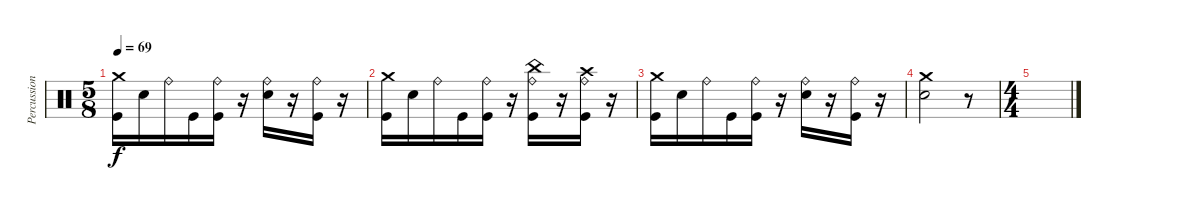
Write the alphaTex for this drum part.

\track ("Percussion" "Percussion") {instrument percussion}
\staff {score}
\articulation defaults
\ts (5 8)
\tempo 69
\clef neutral
\ks c
("Crash medium (hit)" "Kick (hit)").16{dy f} "Electric Snare (hit)".16 "Ride (bell)".16 "Kick (hit)".16 ("Ride (bell)" "Kick (hit)").16 r.16 ("Ride (bell)" "Electric Snare (hit)").16 r.16 ("Ride (bell)" "Kick (hit)").16 r.16 |
("Crash medium (hit)" "Kick (hit)").16 "Electric Snare (hit)".16 "Ride (bell)".16 "Kick (hit)".16 ("Ride (bell)" "Kick (hit)").16 r.16 ("China (hit)" "Ride (bell)" "Kick (hit)").16 r.16 ("Crash high (hit)" "Ride (bell)" "Kick (hit)").16 r.16 |
("Crash medium (hit)" "Kick (hit)").16 "Electric Snare (hit)".16 "Ride (bell)".16 "Kick (hit)".16 ("Ride (bell)" "Kick (hit)").16 r.16 ("Ride (bell)" "Electric Snare (hit)").16 r.16 ("Ride (bell)" "Kick (hit)").16 r.16 |
("Crash medium (hit)" "Electric Snare (hit)").2 r.8 |
\ts (4 4)
